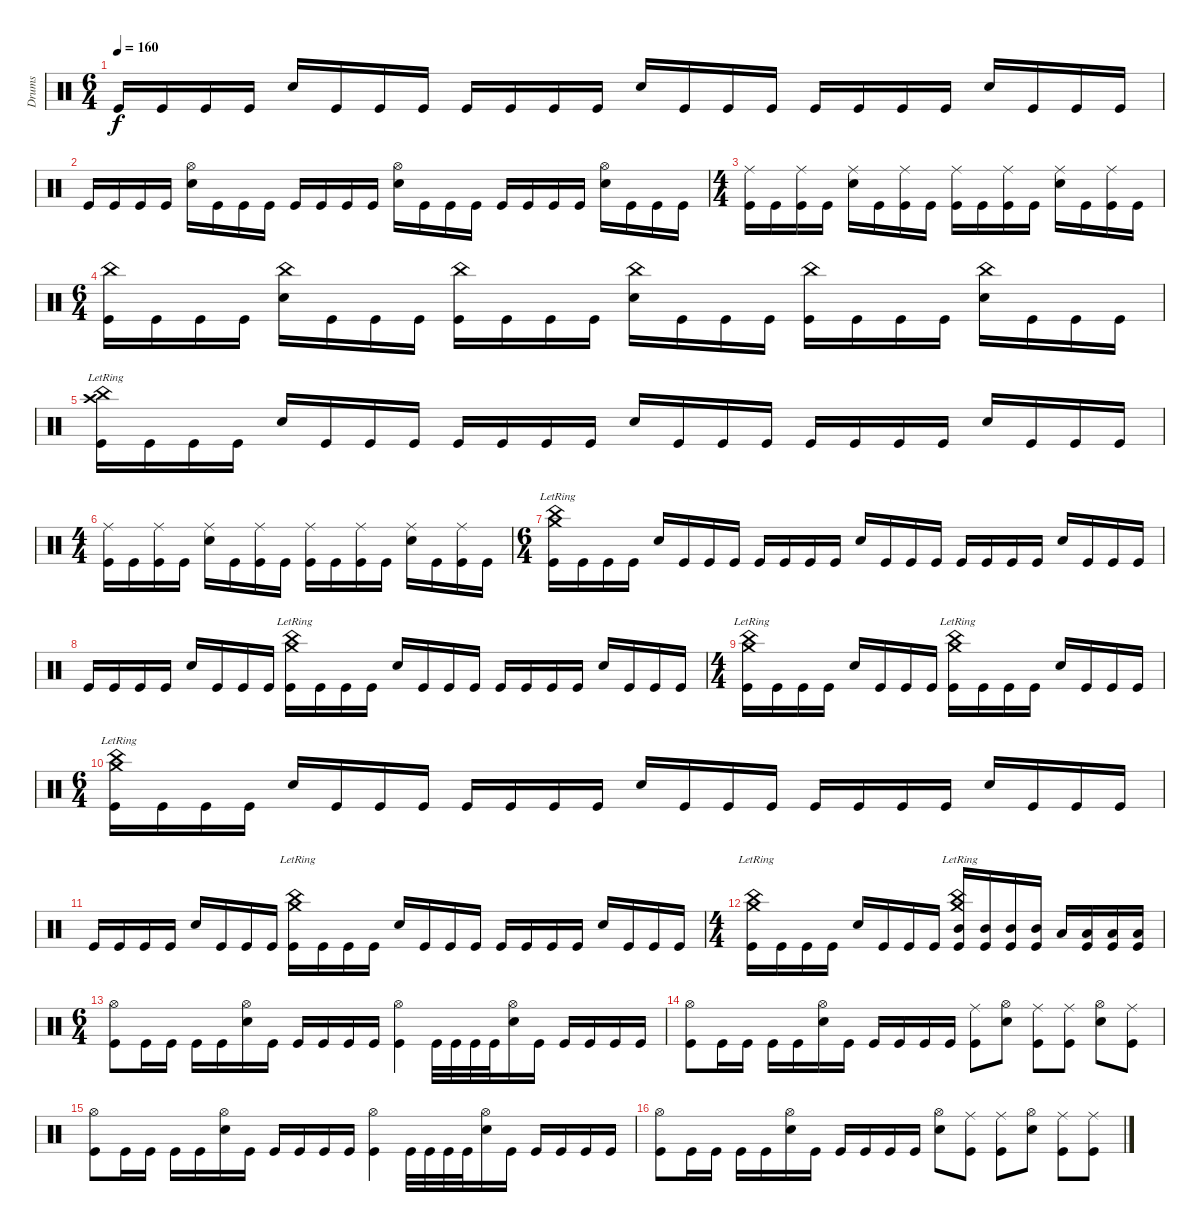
\track ("Drums" "Drums") {instrument percussion}
\staff {score}
\articulation defaults
\ts (6 4)
\tempo 160
\clef neutral
\ks c "Kick (hit)".16{dy f} "Kick (hit)".16 "Kick (hit)".16 "Kick (hit)".16 "Snare (hit) 2".16 "Kick (hit)".16 "Kick (hit)".16 "Kick (hit)".16 "Kick (hit)".16 "Kick (hit)".16 "Kick (hit)".16 "Kick (hit)".16 "Snare (hit) 2".16 "Kick (hit)".16 "Kick (hit)".16 "Kick (hit)".16 "Kick (hit)".16 "Kick (hit)".16 "Kick (hit)".16 "Kick (hit)".16 "Snare (hit) 2".16 "Kick (hit)".16 "Kick (hit)".16 "Kick (hit)".16
|
"Kick (hit)".16 "Kick (hit)".16 "Kick (hit)".16 "Kick (hit)".16 ("Hi-Hat (open)" "Snare (hit) 2").16 "Kick (hit)".16 "Kick (hit)".16 "Kick (hit)".16 "Kick (hit)".16 "Kick (hit)".16 "Kick (hit)".16 "Kick (hit)".16 ("Hi-Hat (open)" "Snare (hit) 2").16 "Kick (hit)".16 "Kick (hit)".16 "Kick (hit)".16 "Kick (hit)".16 "Kick (hit)".16 "Kick (hit)".16 "Kick (hit)".16 ("Hi-Hat (open)" "Snare (hit) 2").16 "Kick (hit)".16 "Kick (hit)".16 "Kick (hit)".16 |
\ts (4 4)
("Ride (middle)" "Kick (hit)").16 "Kick (hit)".16 ("Ride (middle)" "Kick (hit)").16 "Kick (hit)".16 ("Ride (middle)" "Snare (hit) 2").16 "Kick (hit)".16 ("Ride (middle)" "Kick (hit)").16 "Kick (hit)".16 ("Ride (middle)" "Kick (hit)").16 "Kick (hit)".16 ("Ride (middle)" "Kick (hit)").16 "Kick (hit)".16 ("Ride (middle)" "Snare (hit) 2").16 "Kick (hit)".16 ("Ride (middle)" "Kick (hit)").16 "Kick (hit)".16 |
\ts (6 4)
("China (hit)" "Kick (hit)").16 "Kick (hit)".16 "Kick (hit)".16 "Kick (hit)".16 ("China (hit)" "Snare (hit) 2").16 "Kick (hit)".16 "Kick (hit)".16 "Kick (hit)".16 ("China (hit)" "Kick (hit)").16 "Kick (hit)".16 "Kick (hit)".16 "Kick (hit)".16 ("China (hit)" "Snare (hit) 2").16 "Kick (hit)".16 "Kick (hit)".16 "Kick (hit)".16 ("China (hit)" "Kick (hit)").16 "Kick (hit)".16 "Kick (hit)".16 "Kick (hit)".16 ("China (hit)" "Snare (hit) 2").16 "Kick (hit)".16 "Kick (hit)".16 "Kick (hit)".16 |
("China (hit)"{lr} "Crash high (hit)"{lr} "Kick (hit)").16 "Kick (hit)".16 "Kick (hit)".16 "Kick (hit)".16 "Snare (hit) 2".16 "Kick (hit)".16 "Kick (hit)".16 "Kick (hit)".16 "Kick (hit)".16 "Kick (hit)".16 "Kick (hit)".16 "Kick (hit)".16 "Snare (hit) 2".16 "Kick (hit)".16 "Kick (hit)".16 "Kick (hit)".16 "Kick (hit)".16 "Kick (hit)".16 "Kick (hit)".16 "Kick (hit)".16 "Snare (hit) 2".16 "Kick (hit)".16 "Kick (hit)".16 "Kick (hit)".16 |
\ts (4 4)
("Ride (middle)" "Kick (hit)").16 "Kick (hit)".16 ("Ride (middle)" "Kick (hit)").16 "Kick (hit)".16 ("Ride (middle)" "Snare (hit) 2").16 "Kick (hit)".16 ("Ride (middle)" "Kick (hit)").16 "Kick (hit)".16 ("Ride (middle)" "Kick (hit)").16 "Kick (hit)".16 ("Ride (middle)" "Kick (hit)").16 "Kick (hit)".16 ("Ride (middle)" "Snare (hit) 2").16 "Kick (hit)".16 ("Ride (middle)" "Kick (hit)").16 "Kick (hit)".16 |
\ts (6 4)
("Crash medium (hit)"{lr} "China (hit)"{lr} "Kick (hit)").16 "Kick (hit)".16 "Kick (hit)".16 "Kick (hit)".16 "Snare (hit) 2".16 "Kick (hit)".16 "Kick (hit)".16 "Kick (hit)".16 "Kick (hit)".16 "Kick (hit)".16 "Kick (hit)".16 "Kick (hit)".16 "Snare (hit) 2".16 "Kick (hit)".16 "Kick (hit)".16 "Kick (hit)".16 "Kick (hit)".16 "Kick (hit)".16 "Kick (hit)".16 "Kick (hit)".16 "Snare (hit) 2".16 "Kick (hit)".16 "Kick (hit)".16 "Kick (hit)".16 |
"Kick (hit)".16 "Kick (hit)".16 "Kick (hit)".16 "Kick (hit)".16 "Snare (hit) 2".16 "Kick (hit)".16 "Kick (hit)".16 "Kick (hit)".16 ("China (hit)"{lr} "Crash medium (hit)"{lr} "Kick (hit)").16 "Kick (hit)".16 "Kick (hit)".16 "Kick (hit)".16 "Snare (hit) 2".16 "Kick (hit)".16 "Kick (hit)".16 "Kick (hit)".16 "Kick (hit)".16 "Kick (hit)".16 "Kick (hit)".16 "Kick (hit)".16 "Snare (hit) 2".16 "Kick (hit)".16 "Kick (hit)".16 "Kick (hit)".16 |
\ts (4 4)
("China (hit)"{lr} "Crash medium (hit)"{lr} "Kick (hit)").16 "Kick (hit)".16 "Kick (hit)".16 "Kick (hit)".16 "Snare (hit) 2".16 "Kick (hit)".16 "Kick (hit)".16 "Kick (hit)".16 ("China (hit)"{lr} "Crash medium (hit)"{lr} "Kick (hit)").16 "Kick (hit)".16 "Kick (hit)".16 "Kick (hit)".16 "Snare (hit) 2".16 "Kick (hit)".16 "Kick (hit)".16 "Kick (hit)".16 |
\ts (6 4)
("Crash medium (hit)"{lr} "China (hit)"{lr} "Kick (hit)").16 "Kick (hit)".16 "Kick (hit)".16 "Kick (hit)".16 "Snare (hit) 2".16 "Kick (hit)".16 "Kick (hit)".16 "Kick (hit)".16 "Kick (hit)".16 "Kick (hit)".16 "Kick (hit)".16 "Kick (hit)".16 "Snare (hit) 2".16 "Kick (hit)".16 "Kick (hit)".16 "Kick (hit)".16 "Kick (hit)".16 "Kick (hit)".16 "Kick (hit)".16 "Kick (hit)".16 "Snare (hit) 2".16 "Kick (hit)".16 "Kick (hit)".16 "Kick (hit)".16 |
"Kick (hit)".16 "Kick (hit)".16 "Kick (hit)".16 "Kick (hit)".16 "Snare (hit) 2".16 "Kick (hit)".16 "Kick (hit)".16 "Kick (hit)".16 ("China (hit)"{lr} "Crash medium (hit)"{lr} "Kick (hit)").16 "Kick (hit)".16 "Kick (hit)".16 "Kick (hit)".16 "Snare (hit) 2".16 "Kick (hit)".16 "Kick (hit)".16 "Kick (hit)".16 "Kick (hit)".16 "Kick (hit)".16 "Kick (hit)".16 "Kick (hit)".16 "Snare (hit) 2".16 "Kick (hit)".16 "Kick (hit)".16 "Kick (hit)".16 |
\ts (4 4)
("China (hit)"{lr} "Crash medium (hit)"{lr} "Kick (hit)").16 "Kick (hit)".16 "Kick (hit)".16 "Kick (hit)".16 "Snare (hit) 2".16 "Kick (hit)".16 "Kick (hit)".16 "Kick (hit)".16 ("China (hit)"{lr} "Crash medium (hit)"{lr} "Mid Tom (hit)" "Kick (hit)").16 ("Mid Tom (hit)" "Kick (hit)").16 ("Mid Tom (hit)" "Kick (hit)").16 ("Mid Tom (hit)" "Kick (hit)").16 "Low Tom (hit)".16 ("Low Tom (hit)" "Kick (hit)").16 ("Low Tom (hit)" "Kick (hit)").16 ("Low Tom (hit)" "Kick (hit)").16 |
\ts (6 4)
("Hi-Hat (open)" "Kick (hit)").8 "Kick (hit)".16 "Kick (hit)".16 "Kick (hit)".16 "Kick (hit)".16 ("Hi-Hat (open)" "Snare (hit) 2").16 "Kick (hit)".16 "Kick (hit)".16 "Kick (hit)".16 "Kick (hit)".16 "Kick (hit)".16 ("Hi-Hat (open)" "Kick (hit)").4 "Kick (hit)".32 "Kick (hit)".32 "Kick (hit)".32 "Kick (hit)".32 ("Hi-Hat (open)" "Snare (hit) 2").16 "Kick (hit)".16 "Kick (hit)".16 "Kick (hit)".16 "Kick (hit)".16 "Kick (hit)".16 |
("Hi-Hat (open)" "Kick (hit)").8 "Kick (hit)".16 "Kick (hit)".16 "Kick (hit)".16 "Kick (hit)".16 ("Hi-Hat (open)" "Snare (hit) 2").16 "Kick (hit)".16 "Kick (hit)".16 "Kick (hit)".16 "Kick (hit)".16 "Kick (hit)".16 ("Ride (middle)" "Kick (hit)").8 ("Hi-Hat (open)" "Snare (hit) 2").8 ("Ride (middle)" "Kick (hit)").8 ("Ride (middle)" "Kick (hit)").8 ("Hi-Hat (open)" "Snare (hit) 2").8 ("Ride (middle)" "Kick (hit)").8 |
("Hi-Hat (open)" "Kick (hit)").8 "Kick (hit)".16 "Kick (hit)".16 "Kick (hit)".16 "Kick (hit)".16 ("Hi-Hat (open)" "Snare (hit) 2").16 "Kick (hit)".16 "Kick (hit)".16 "Kick (hit)".16 "Kick (hit)".16 "Kick (hit)".16 ("Hi-Hat (open)" "Kick (hit)").4 "Kick (hit)".32 "Kick (hit)".32 "Kick (hit)".32 "Kick (hit)".32 ("Hi-Hat (open)" "Snare (hit) 2").16 "Kick (hit)".16 "Kick (hit)".16 "Kick (hit)".16 "Kick (hit)".16 "Kick (hit)".16 |
("Hi-Hat (open)" "Kick (hit)").8 "Kick (hit)".16 "Kick (hit)".16 "Kick (hit)".16 "Kick (hit)".16 ("Hi-Hat (open)" "Snare (hit) 2").16 "Kick (hit)".16 "Kick (hit)".16 "Kick (hit)".16 "Kick (hit)".16 "Kick (hit)".16 ("Hi-Hat (open)" "Electric Snare (hit)").8 ("Ride (middle)" "Kick (hit)").8 ("Ride (middle)" "Kick (hit)").8 ("Hi-Hat (open)" "Electric Snare (hit)").8 ("Ride (middle)" "Kick (hit)").8 ("Ride (middle)" "Kick (hit)").8
